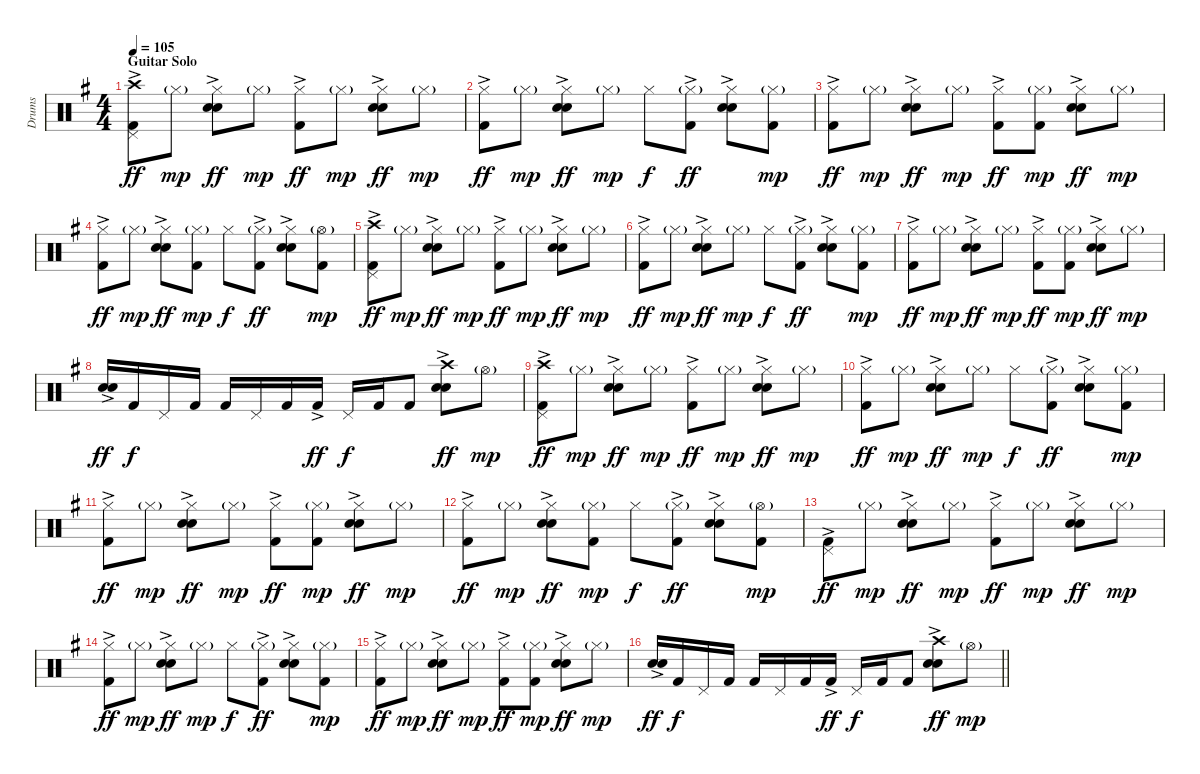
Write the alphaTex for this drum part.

\track ("Drums" "Drums") {instrument percussion}
\staff {score}
\articulation defaults
\ts (4 4)
\section ("" "Guitar Solo")
\tempo 105
\clef neutral
\ks g
("Pedal Hi-Hat (hit)" "Crash high (hit)" "Kick (hit) 2"{ac}).8{dy ff} "Hi-Hat (closed)"{g}.8{dy mp} ("Hi-Hat (closed)" "Electric Snare (hit)"{ac} "Snare (hit) 2").8{dy ff} "Hi-Hat (closed)"{g}.8{dy mp} ("Hi-Hat (closed)" "Kick (hit) 2"{ac}).8{dy ff} "Hi-Hat (closed)"{g}.8{dy mp} ("Hi-Hat (closed)" "Electric Snare (hit)"{ac} "Snare (hit) 2").8{dy ff} "Hi-Hat (closed)"{g}.8{dy mp} |
("Hi-Hat (closed)" "Kick (hit) 2"{ac}).8{dy ff} "Hi-Hat (closed)"{g}.8{dy mp} ("Hi-Hat (closed)" "Electric Snare (hit)"{ac} "Snare (hit) 2").8{dy ff} "Hi-Hat (closed)"{g}.8{dy mp} "Hi-Hat (closed)".8{dy f} ("Hi-Hat (closed)"{g} "Kick (hit) 2"{ac}).8{dy ff} ("Hi-Hat (closed)" "Electric Snare (hit)"{ac} "Snare (hit) 2").8 ("Hi-Hat (closed)"{g} "Kick (hit) 2").8{dy mp} |
("Hi-Hat (closed)" "Kick (hit) 2"{ac}).8{dy ff} "Hi-Hat (closed)"{g}.8{dy mp} ("Hi-Hat (closed)" "Electric Snare (hit)"{ac} "Snare (hit) 2").8{dy ff} "Hi-Hat (closed)"{g}.8{dy mp} ("Hi-Hat (closed)" "Kick (hit) 2"{ac}).8{dy ff} ("Hi-Hat (closed)"{g} "Kick (hit) 2").8{dy mp} ("Hi-Hat (closed)" "Electric Snare (hit)"{ac} "Snare (hit) 2").8{dy ff} "Hi-Hat (closed)"{g}.8{dy mp} |
("Hi-Hat (closed)" "Kick (hit) 2"{ac}).8{dy ff} "Hi-Hat (closed)"{g}.8{dy mp} ("Hi-Hat (closed)" "Electric Snare (hit)"{ac} "Snare (hit) 2").8{dy ff} ("Hi-Hat (closed)"{g} "Kick (hit) 2").8{dy mp} "Hi-Hat (closed)".8{dy f} ("Hi-Hat (closed)"{g} "Kick (hit) 2"{ac}).8{dy ff} ("Hi-Hat (closed)" "Electric Snare (hit)"{ac} "Snare (hit) 2").8 ("Hi-Hat (open)"{g} "Kick (hit) 2").8{dy mp} |
("Pedal Hi-Hat (hit)" "Crash high (hit)" "Kick (hit) 2"{ac}).8{dy ff} "Hi-Hat (closed)"{g}.8{dy mp} ("Hi-Hat (closed)" "Electric Snare (hit)"{ac} "Snare (hit) 2").8{dy ff} "Hi-Hat (closed)"{g}.8{dy mp} ("Hi-Hat (closed)" "Kick (hit) 2"{ac}).8{dy ff} "Hi-Hat (closed)"{g}.8{dy mp} ("Hi-Hat (closed)" "Electric Snare (hit)"{ac} "Snare (hit) 2").8{dy ff} "Hi-Hat (closed)"{g}.8{dy mp} |
("Hi-Hat (closed)" "Kick (hit) 2"{ac}).8{dy ff} "Hi-Hat (closed)"{g}.8{dy mp} ("Hi-Hat (closed)" "Electric Snare (hit)"{ac} "Snare (hit) 2").8{dy ff} "Hi-Hat (closed)"{g}.8{dy mp} "Hi-Hat (closed)".8{dy f} ("Hi-Hat (closed)"{g} "Kick (hit) 2"{ac}).8{dy ff} ("Hi-Hat (closed)" "Electric Snare (hit)"{ac} "Snare (hit) 2").8 ("Hi-Hat (closed)"{g} "Kick (hit) 2").8{dy mp} |
("Hi-Hat (closed)" "Kick (hit) 2"{ac}).8{dy ff} "Hi-Hat (closed)"{g}.8{dy mp} ("Hi-Hat (closed)" "Electric Snare (hit)"{ac} "Snare (hit) 2").8{dy ff} "Hi-Hat (closed)"{g}.8{dy mp} ("Hi-Hat (closed)" "Kick (hit) 2"{ac}).8{dy ff} ("Hi-Hat (closed)"{g} "Kick (hit) 2").8{dy mp} ("Hi-Hat (closed)" "Electric Snare (hit)"{ac} "Snare (hit) 2").8{dy ff} "Hi-Hat (closed)"{g}.8{dy mp} |
("Electric Snare (hit)"{ac} "Snare (hit) 2").16{dy ff} "Kick (hit) 2".16{dy f} "Pedal Hi-Hat (hit)".16 "Kick (hit) 2".16 "Kick (hit) 2".16 "Pedal Hi-Hat (hit)".16 "Kick (hit) 2".16 "Kick (hit) 2"{ac}.16{dy ff} "Pedal Hi-Hat (hit)".16{dy f} "Kick (hit) 2".16 "Kick (hit) 2".8 ("Crash high (hit)" "Electric Snare (hit)"{ac} "Snare (hit) 2").8{dy ff} "Hi-Hat (open)"{g}.8{dy mp} |
("Pedal Hi-Hat (hit)" "Crash high (hit)" "Kick (hit) 2"{ac}).8{dy ff} "Hi-Hat (closed)"{g}.8{dy mp} ("Hi-Hat (closed)" "Electric Snare (hit)"{ac} "Snare (hit) 2").8{dy ff} "Hi-Hat (closed)"{g}.8{dy mp} ("Hi-Hat (closed)" "Kick (hit) 2"{ac}).8{dy ff} "Hi-Hat (closed)"{g}.8{dy mp} ("Hi-Hat (closed)" "Electric Snare (hit)"{ac} "Snare (hit) 2").8{dy ff} "Hi-Hat (closed)"{g}.8{dy mp} |
("Hi-Hat (closed)" "Kick (hit) 2"{ac}).8{dy ff} "Hi-Hat (closed)"{g}.8{dy mp} ("Hi-Hat (closed)" "Electric Snare (hit)"{ac} "Snare (hit) 2").8{dy ff} "Hi-Hat (closed)"{g}.8{dy mp} "Hi-Hat (closed)".8{dy f} ("Hi-Hat (closed)"{g} "Kick (hit) 2"{ac}).8{dy ff} ("Hi-Hat (closed)" "Electric Snare (hit)"{ac} "Snare (hit) 2").8 ("Hi-Hat (closed)"{g} "Kick (hit) 2").8{dy mp} |
("Hi-Hat (closed)" "Kick (hit) 2"{ac}).8{dy ff} "Hi-Hat (closed)"{g}.8{dy mp} ("Hi-Hat (closed)" "Electric Snare (hit)"{ac} "Snare (hit) 2").8{dy ff} "Hi-Hat (closed)"{g}.8{dy mp} ("Hi-Hat (closed)" "Kick (hit) 2"{ac}).8{dy ff} ("Hi-Hat (closed)"{g} "Kick (hit) 2").8{dy mp} ("Hi-Hat (closed)" "Electric Snare (hit)"{ac} "Snare (hit) 2").8{dy ff} "Hi-Hat (closed)"{g}.8{dy mp} |
("Hi-Hat (closed)" "Kick (hit) 2"{ac}).8{dy ff} "Hi-Hat (closed)"{g}.8{dy mp} ("Hi-Hat (closed)" "Electric Snare (hit)"{ac} "Snare (hit) 2").8{dy ff} ("Hi-Hat (closed)"{g} "Kick (hit) 2").8{dy mp} "Hi-Hat (closed)".8{dy f} ("Hi-Hat (closed)"{g} "Kick (hit) 2"{ac}).8{dy ff} ("Hi-Hat (closed)" "Electric Snare (hit)"{ac} "Snare (hit) 2").8 ("Hi-Hat (open)"{g} "Kick (hit) 2").8{dy mp} |
("Pedal Hi-Hat (hit)" "Kick (hit) 2"{ac}).8{dy ff} "Hi-Hat (closed)"{g}.8{dy mp} ("Hi-Hat (closed)" "Electric Snare (hit)"{ac} "Snare (hit) 2").8{dy ff} "Hi-Hat (closed)"{g}.8{dy mp} ("Hi-Hat (closed)" "Kick (hit) 2"{ac}).8{dy ff} "Hi-Hat (closed)"{g}.8{dy mp} ("Hi-Hat (closed)" "Electric Snare (hit)"{ac} "Snare (hit) 2").8{dy ff} "Hi-Hat (closed)"{g}.8{dy mp} |
("Hi-Hat (closed)" "Kick (hit) 2"{ac}).8{dy ff} "Hi-Hat (closed)"{g}.8{dy mp} ("Hi-Hat (closed)" "Electric Snare (hit)"{ac} "Snare (hit) 2").8{dy ff} "Hi-Hat (closed)"{g}.8{dy mp} "Hi-Hat (closed)".8{dy f} ("Hi-Hat (closed)"{g} "Kick (hit) 2"{ac}).8{dy ff} ("Hi-Hat (closed)" "Electric Snare (hit)"{ac} "Snare (hit) 2").8 ("Hi-Hat (closed)"{g} "Kick (hit) 2").8{dy mp} |
("Hi-Hat (closed)" "Kick (hit) 2"{ac}).8{dy ff} "Hi-Hat (closed)"{g}.8{dy mp} ("Hi-Hat (closed)" "Electric Snare (hit)"{ac} "Snare (hit) 2").8{dy ff} "Hi-Hat (closed)"{g}.8{dy mp} ("Hi-Hat (closed)" "Kick (hit) 2"{ac}).8{dy ff} ("Hi-Hat (closed)"{g} "Kick (hit) 2").8{dy mp} ("Hi-Hat (closed)" "Electric Snare (hit)"{ac} "Snare (hit) 2").8{dy ff} "Hi-Hat (closed)"{g}.8{dy mp} |
\barLineRight lightlight
("Electric Snare (hit)"{ac} "Snare (hit) 2").16{dy ff} "Kick (hit) 2".16{dy f} "Pedal Hi-Hat (hit)".16 "Kick (hit) 2".16 "Kick (hit) 2".16 "Pedal Hi-Hat (hit)".16 "Kick (hit) 2".16 "Kick (hit) 2"{ac}.16{dy ff} "Pedal Hi-Hat (hit)".16{dy f} "Kick (hit) 2".16 "Kick (hit) 2".8 ("Crash high (hit)" "Electric Snare (hit)"{ac} "Snare (hit) 2").8{dy ff} "Hi-Hat (open)"{g}.8{dy mp}
